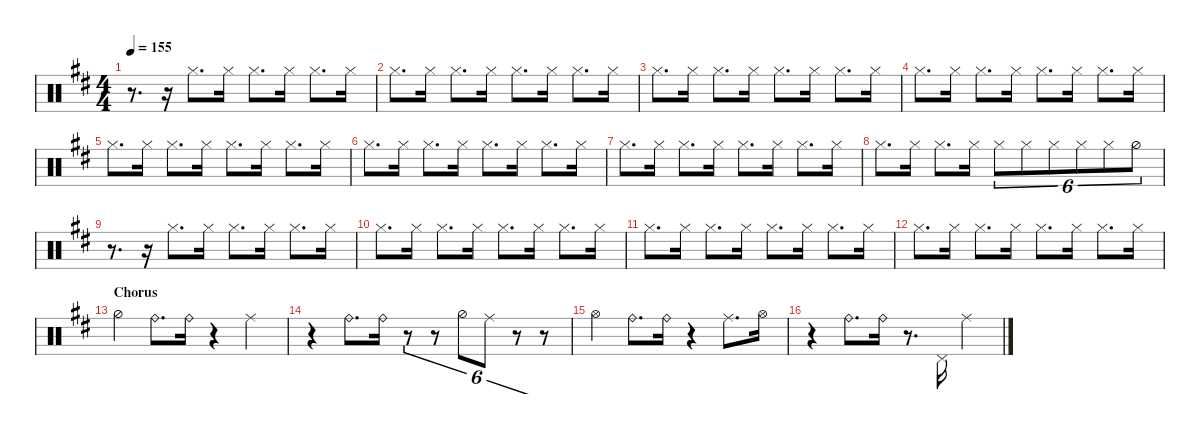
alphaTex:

\hideDynamics
\bracketExtendMode nobrackets
\singleTrackTrackNamePolicy hidden
\multiTrackTrackNamePolicy hidden
\otherSystemsTrackNameOrientation horizontal
\track ("Perc" "Drums") {instrument percussion}
\staff {score}
\articulation defaults
\ts (4 4)
\tempo 155
\clef neutral
\ks d
r.8{d dy p beam Down} r.16{beam Down} "Hi-Hat (closed)"{acc forcenatural}.8{d beam Down} "Hi-Hat (closed)"{acc forcenatural}.16{dy mp beam Down} "Hi-Hat (closed)"{acc forcenatural}.8{d dy p beam Down} "Hi-Hat (closed)"{acc forcenatural}.16{beam Down} "Hi-Hat (closed)"{acc forcenatural}.8{d beam Down} "Hi-Hat (closed)"{acc forcenatural}.16{beam Down} |
"Hi-Hat (closed)"{acc forcenatural}.8{d dy mp beam Down} "Hi-Hat (closed)"{acc forcenatural}.16{dy p beam Down} "Hi-Hat (closed)"{acc forcenatural}.8{d beam Down} "Hi-Hat (closed)"{acc forcenatural}.16{dy mf beam Down} "Hi-Hat (closed)"{acc forcenatural}.8{d dy p beam Down} "Hi-Hat (closed)"{acc forcenatural}.16{beam Down} "Hi-Hat (closed)"{acc forcenatural}.8{d beam Down} "Hi-Hat (closed)"{acc forcenatural}.16{beam Down} |
"Hi-Hat (closed)"{acc forcenatural}.8{d beam Down} "Hi-Hat (closed)"{acc forcenatural}.16{beam Down} "Hi-Hat (closed)"{acc forcenatural}.8{d beam Down} "Hi-Hat (closed)"{acc forcenatural}.16{dy mp beam Down} "Hi-Hat (closed)"{acc forcenatural}.8{d dy p beam Down} "Hi-Hat (closed)"{acc forcenatural}.16{beam Down} "Hi-Hat (closed)"{acc forcenatural}.8{d beam Down} "Hi-Hat (closed)"{acc forcenatural}.16{beam Down} |
"Hi-Hat (closed)"{acc forcenatural}.8{d beam Down} "Hi-Hat (closed)"{acc forcenatural}.16{beam Down} "Hi-Hat (closed)"{acc forcenatural}.8{d beam Down} "Hi-Hat (closed)"{acc forcenatural}.16{dy mp beam Down} "Hi-Hat (closed)"{acc forcenatural}.8{d dy p beam Down} "Hi-Hat (closed)"{acc forcenatural}.16{beam Down} "Hi-Hat (closed)"{acc forcenatural}.8{d beam Down} "Hi-Hat (closed)"{acc forcenatural}.16{beam Down} |
"Hi-Hat (closed)"{acc forcenatural}.8{d beam Down} "Hi-Hat (closed)"{acc forcenatural}.16{beam Down} "Hi-Hat (closed)"{acc forcenatural}.8{d beam Down} "Hi-Hat (closed)"{acc forcenatural}.16{dy mp beam Down} "Hi-Hat (closed)"{acc forcenatural}.8{d dy p beam Down} "Hi-Hat (closed)"{acc forcenatural}.16{beam Down} "Hi-Hat (closed)"{acc forcenatural}.8{d beam Down} "Hi-Hat (closed)"{acc forcenatural}.16{beam Down} |
"Hi-Hat (closed)"{acc forcenatural}.8{d dy mp beam Down} "Hi-Hat (closed)"{acc forcenatural}.16{dy p beam Down} "Hi-Hat (closed)"{acc forcenatural}.8{d beam Down} "Hi-Hat (closed)"{acc forcenatural}.16{dy mf beam Down} "Hi-Hat (closed)"{acc forcenatural}.8{d dy p beam Down} "Hi-Hat (closed)"{acc forcenatural}.16{beam Down} "Hi-Hat (closed)"{acc forcenatural}.8{d beam Down} "Hi-Hat (closed)"{acc forcenatural}.16{beam Down} |
"Hi-Hat (closed)"{acc forcenatural}.8{d beam Down} "Hi-Hat (closed)"{acc forcenatural}.16{beam Down} "Hi-Hat (closed)"{acc forcenatural}.8{d beam Down} "Hi-Hat (closed)"{acc forcenatural}.16{dy mp beam Down} "Hi-Hat (closed)"{acc forcenatural}.8{d dy p beam Down} "Hi-Hat (closed)"{acc forcenatural}.16{beam Down} "Hi-Hat (closed)"{acc forcenatural}.8{d beam Down} "Hi-Hat (closed)"{acc forcenatural}.16{beam Down} |
"Hi-Hat (closed)"{acc forcenatural}.8{d dy mp beam Down} "Hi-Hat (closed)"{acc forcenatural}.16{dy p beam Down} "Hi-Hat (closed)"{acc forcenatural}.8{d beam Down} "Hi-Hat (closed)"{acc forcenatural}.16{dy mf beam Down} "Hi-Hat (closed)"{acc forcenatural}.8{tu (6 4) dy mp beam Down} "Hi-Hat (closed)"{acc forcenatural}.8{tu (6 4) dy p beam Down} "Hi-Hat (closed)"{acc forcenatural}.8{tu (6 4) beam Down} "Hi-Hat (closed)"{acc forcenatural}.8{tu (6 4) beam Down} "Hi-Hat (closed)"{acc forcenatural}.8{tu (6 4) beam Down} "Hi-Hat (half)"{acc forcenatural}.8{tu (6 4) beam Down} |
r.8{d beam Down} r.16{beam Down} "Hi-Hat (closed)"{acc forcenatural}.8{d beam Down} "Hi-Hat (closed)"{acc forcenatural}.16{dy mp beam Down} "Hi-Hat (closed)"{acc forcenatural}.8{d dy p beam Down} "Hi-Hat (closed)"{acc forcenatural}.16{beam Down} "Hi-Hat (closed)"{acc forcenatural}.8{d beam Down} "Hi-Hat (closed)"{acc forcenatural}.16{beam Down} |
"Hi-Hat (closed)"{acc forcenatural}.8{d dy mp beam Down} "Hi-Hat (closed)"{acc forcenatural}.16{dy p beam Down} "Hi-Hat (closed)"{acc forcenatural}.8{d beam Down} "Hi-Hat (closed)"{acc forcenatural}.16{dy mf beam Down} "Hi-Hat (closed)"{acc forcenatural}.8{d dy p beam Down} "Hi-Hat (closed)"{acc forcenatural}.16{beam Down} "Hi-Hat (closed)"{acc forcenatural}.8{d beam Down} "Hi-Hat (closed)"{acc forcenatural}.16{beam Down} |
"Hi-Hat (closed)"{acc forcenatural}.8{d beam Down} "Hi-Hat (closed)"{acc forcenatural}.16{beam Down} "Hi-Hat (closed)"{acc forcenatural}.8{d beam Down} "Hi-Hat (closed)"{acc forcenatural}.16{dy mp beam Down} "Hi-Hat (closed)"{acc forcenatural}.8{d dy p beam Down} "Hi-Hat (closed)"{acc forcenatural}.16{beam Down} "Hi-Hat (closed)"{acc forcenatural}.8{d beam Down} "Hi-Hat (closed)"{acc forcenatural}.16{beam Down} |
"Hi-Hat (closed)"{acc forcenatural}.8{d beam Down} "Hi-Hat (closed)"{acc forcenatural}.16{beam Down} "Hi-Hat (closed)"{acc forcenatural}.8{d beam Down} "Hi-Hat (closed)"{acc forcenatural}.16{dy mp beam Down} "Hi-Hat (closed)"{acc forcenatural}.8{d dy p beam Down} "Hi-Hat (closed)"{acc forcenatural}.16{beam Down} "Hi-Hat (closed)"{acc forcenatural}.8{d beam Down} "Hi-Hat (closed)"{acc forcenatural}.16{beam Down} |
\section ("" "Chorus")
"Hi-Hat (half)"{acc forcenatural}.4{dy mp beam Down} "Ride (bell)"{acc forcenatural}.8{d dy pp beam Down} "Ride (bell)"{acc forcenatural}.16{beam Down} r.4{beam Down} "Ride (middle)"{acc forcenatural}.4{dy mf beam Down} |
r.4{beam Down} "Ride (bell)"{acc forcenatural}.8{d dy pp beam Down} "Ride (bell)"{acc forcenatural}.16{beam Down} r.8{tu (6 4) beam Down} r.8{tu (6 4) beam Down} "Hi-Hat (half)"{acc forcenatural}.8{tu (6 4) dy p beam Down} "Ride (middle)"{acc forcenatural}.8{tu (6 4) dy mf beam Down} r.8{tu (6 4) beam Down} r.8{tu (6 4) beam Down} |
"Hi-Hat (open)"{acc forcenatural}.4{beam Down} "Ride (bell)"{acc forcenatural}.8{d dy pp beam Down} "Ride (bell)"{acc forcenatural}.16{beam Down} r.4{beam Down} "Ride (middle)"{acc forcenatural}.8{d dy mf beam Down} "Hi-Hat (open)"{acc forcenatural}.16{dy mp beam Down} |
r.4{beam Down} "Ride (bell)"{acc forcenatural}.8{d dy pp beam Down} "Ride (bell)"{acc forcenatural}.16{beam Down} r.8{d beam Down} "Pedal Hi-Hat (hit)"{acc forcenatural}.16{dy p beam Up} "Ride (middle)"{acc forcenatural}.4{dy mf beam Down}
